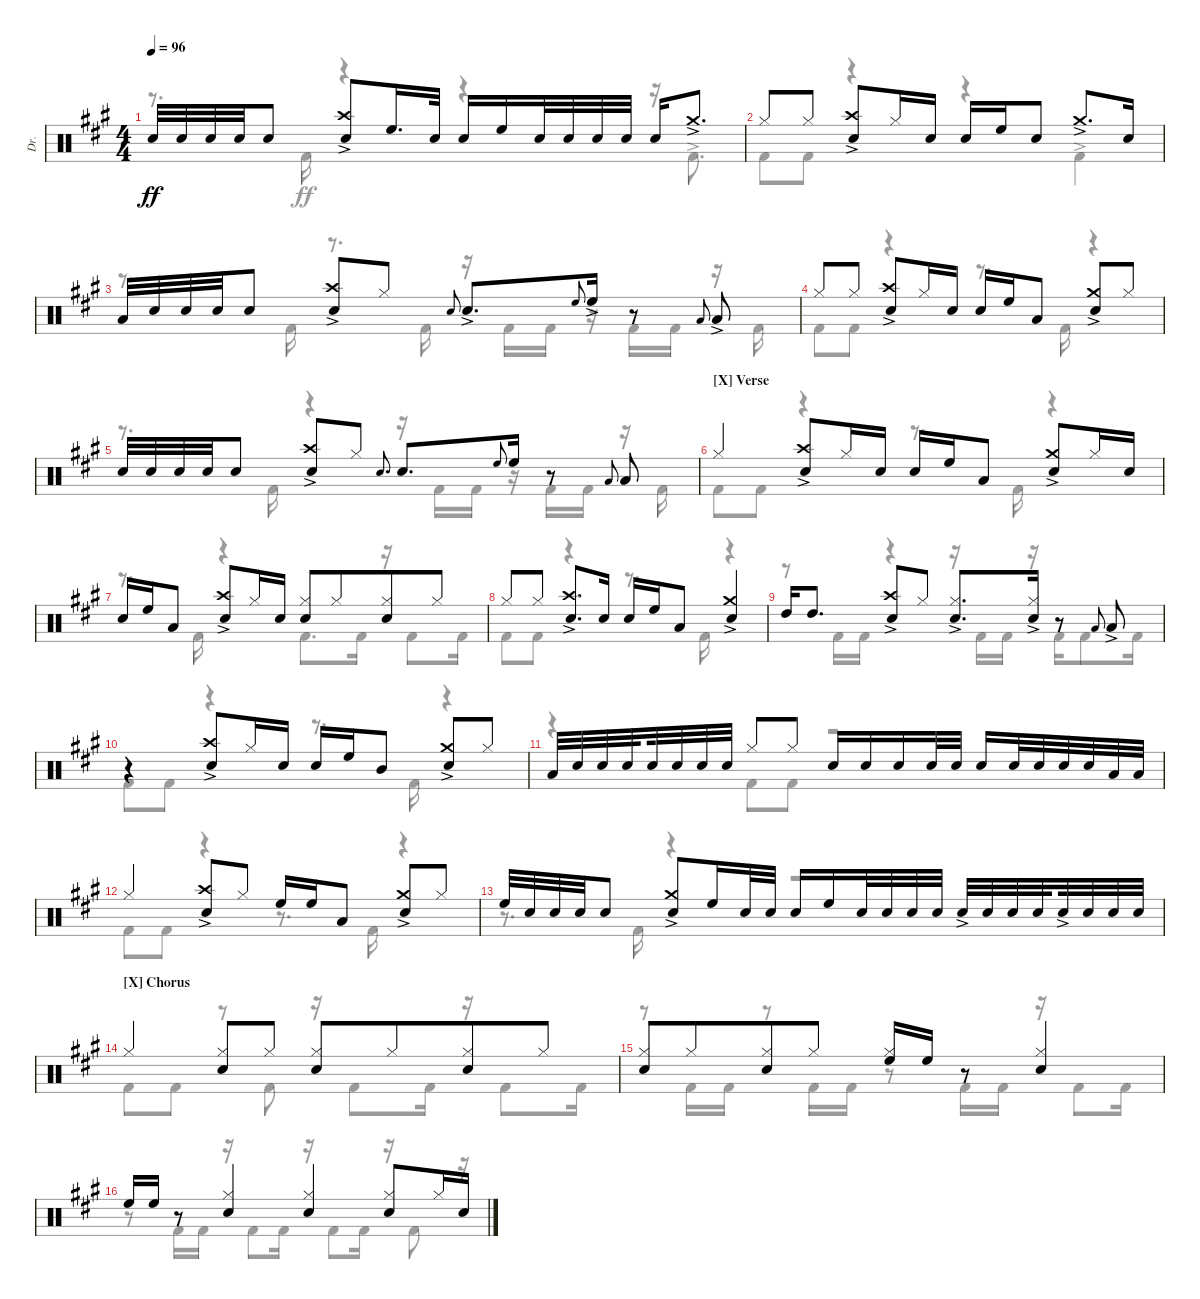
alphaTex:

\defaultSystemsLayout 4
\bracketExtendMode groupsimilarinstruments
\otherSystemsTrackNameOrientation horizontal
\track ("Drums" "Dr.") {instrument percussion}
\staff {score}
\articulation defaults
\voice
\ts (4 4)
\tempo 96
\clef neutral
\ks a "Snare (hit) 2"{acc forcenatural}.32{dy ff} "Snare (hit) 2"{acc forcenatural}.32 "Snare (hit) 2"{acc forcenatural}.32 "Snare (hit) 2"{acc forcenatural}.32 "Snare (hit) 2"{acc forcenatural}.8
("Snare (hit) 2"{ac acc forcenatural} "Crash high (hit)"{ac acc forcenatural}).8 "High Floor Tom (hit)"{acc forcenatural}.16{d} "Snare (hit) 2"{acc forcenatural}.32 "Snare (hit) 2"{acc forcenatural}.16 "High Floor Tom (hit)"{acc forcenatural}.16 "Snare (hit) 2"{acc forcenatural}.32 "Snare (hit) 2"{acc forcenatural}.32 "Snare (hit) 2"{acc forcenatural}.32 "Snare (hit) 2"{acc forcenatural}.32 "Snare (hit) 2"{acc forcenatural}.16 "Crash medium (hit)"{ac acc forcenatural}.8{d} |
"Hi-Hat (closed)"{acc forcenatural}.8 "Hi-Hat (closed)"{acc forcenatural}.8 ("Crash high (hit)"{ac acc forcenatural} "Snare (hit) 2"{ac acc forcenatural}).8 "Hi-Hat (closed)"{acc forcenatural}.16 "Snare (hit) 2"{acc forcenatural}.16 "Snare (hit) 2"{acc forcenatural}.16 "High Floor Tom (hit)"{acc forcenatural}.16 "Snare (hit) 2"{acc forcenatural}.8 "Crash medium (hit)"{ac acc forcenatural}.8{d} "Snare (hit) 2"{acc forcenatural}.16 |
"Low Tom (hit)"{acc forcenatural}.32 "Snare (hit) 2"{acc forcenatural}.32 "Snare (hit) 2"{acc forcenatural}.32 "Snare (hit) 2"{acc forcenatural}.32 "Snare (hit) 2"{acc forcenatural}.8 ("Snare (hit) 2"{ac acc forcenatural} "Crash high (hit)"{ac acc forcenatural}).8 "Hi-Hat (closed)"{acc forcenatural}.8 "Snare (hit) 2"{acc forcenatural}.8{gr onbeat} "Snare (hit) 2"{ac acc forcenatural}.8{d} "High Floor Tom (hit)"{acc forcenatural}.8{gr onbeat} "High Floor Tom (hit)"{ac acc forcenatural}.16 r.8 "Low Tom (hit)"{acc forcenatural}.8{gr onbeat} "Low Tom (hit)"{ac acc forcenatural}.8 |
"Hi-Hat (closed)"{acc forcenatural}.8 "Hi-Hat (closed)"{acc forcenatural}.8 ("Crash high (hit)"{ac acc forcenatural} "Snare (hit) 2"{ac acc forcenatural}).8 "Hi-Hat (closed)"{acc forcenatural}.16 "Snare (hit) 2"{acc forcenatural}.16 "Snare (hit) 2"{acc forcenatural}.16 "High Floor Tom (hit)"{acc forcenatural}.16 "Low Tom (hit)"{acc forcenatural}.8 ("Snare (hit) 2"{ac acc forcenatural} "Crash medium (hit)"{ac acc forcenatural}).8 "Hi-Hat (closed)"{acc forcenatural}.8 |
"Snare (hit) 2"{acc forcenatural}.32 "Snare (hit) 2"{acc forcenatural}.32 "Snare (hit) 2"{acc forcenatural}.32 "Snare (hit) 2"{acc forcenatural}.32 "Snare (hit) 2"{acc forcenatural}.8 ("Snare (hit) 2"{ac acc forcenatural} "Crash high (hit)"{ac acc forcenatural}).8 "Hi-Hat (closed)"{acc forcenatural}.8 "Snare (hit) 2"{acc forcenatural}.8{d gr onbeat} "Snare (hit) 2"{acc forcenatural}.8{d} "High Floor Tom (hit)"{acc forcenatural}.8{gr onbeat} "High Floor Tom (hit)"{acc forcenatural}.16 r.8 "Low Tom (hit)"{acc forcenatural}.8{gr onbeat} "Low Tom (hit)"{acc forcenatural}.8 |
\section ("X" "Verse")
"Hi-Hat (closed)"{acc forcenatural}.4 ("Crash high (hit)"{ac acc forcenatural} "Snare (hit) 2"{ac acc forcenatural}).8 "Hi-Hat (closed)"{acc forcenatural}.16 "Snare (hit) 2"{acc forcenatural}.16 "Snare (hit) 2"{acc forcenatural}.16 "High Floor Tom (hit)"{acc forcenatural}.16 "Low Tom (hit)"{acc forcenatural}.8 ("Snare (hit) 2"{ac acc forcenatural} "Crash medium (hit)"{ac acc forcenatural}).8 "Hi-Hat (closed)"{acc forcenatural}.16 "Snare (hit) 2"{acc forcenatural}.16 |
"Snare (hit) 2"{acc forcenatural}.16 "High Floor Tom (hit)"{acc forcenatural}.16 "Low Tom (hit)"{acc forcenatural}.8 ("Snare (hit) 2"{ac acc forcenatural} "Crash high (hit)"{ac acc forcenatural}).8 "Hi-Hat (closed)"{acc forcenatural}.16 "Snare (hit) 2"{acc forcenatural}.16 ("Snare (hit) 2"{acc forcenatural} "Hi-Hat (closed)"{acc forcenatural}).8 "Hi-Hat (closed)"{acc forcenatural}.8{beam merge} ("Hi-Hat (closed)"{acc forcenatural} "Snare (hit) 2"{acc forcenatural}).8{beam merge} "Hi-Hat (closed)"{acc forcenatural}.8{beam merge} |
"Hi-Hat (closed)"{acc forcenatural}.8 "Hi-Hat (closed)"{acc forcenatural}.8 ("Crash high (hit)"{ac acc forcenatural} "Snare (hit) 2"{ac acc forcenatural}).8{d} "Snare (hit) 2"{acc forcenatural}.16 "Snare (hit) 2"{acc forcenatural}.16 "High Floor Tom (hit)"{acc forcenatural}.16 "Low Tom (hit)"{acc forcenatural}.8 ("Snare (hit) 2"{ac acc forcenatural} "Crash medium (hit)"{ac acc forcenatural}).4 |
"High Tom (hit)"{acc forcenatural}.16 "High Tom (hit)"{acc forcenatural}.8{d} ("Snare (hit) 2"{ac acc forcenatural} "Crash high (hit)"{ac acc forcenatural}).8 "Hi-Hat (closed)"{acc forcenatural}.8 ("Hi-Hat (closed)"{ac acc forcenatural} "Snare (hit) 2"{ac acc forcenatural}).8{d} ("Hi-Hat (closed)"{ac acc forcenatural} "Snare (hit) 2"{ac acc forcenatural}).16 r.8 "Low Tom (hit)"{acc forcenatural}.8{gr onbeat} "Low Tom (hit)"{ac acc forcenatural}.8 |
r.4 ("Snare (hit) 2"{ac acc forcenatural} "Crash high (hit)"{ac acc forcenatural}).8 "Hi-Hat (closed)"{acc forcenatural}.16 "Snare (hit) 2"{acc forcenatural}.16 "Snare (hit) 2"{acc forcenatural}.16 "High Floor Tom (hit)"{acc forcenatural}.16 "Mid Tom (hit)"{acc forcenatural}.8 ("Snare (hit) 2"{ac acc forcenatural} "Crash medium (hit)"{ac acc forcenatural}).8 "Hi-Hat (closed)"{acc forcenatural}.8 |
"Low Tom (hit)"{acc forcenatural}.32 "Snare (hit) 2"{acc forcenatural}.32 "Snare (hit) 2"{acc forcenatural}.32 "Snare (hit) 2"{acc forcenatural}.32{beam splitsecondary} "Snare (hit) 2"{acc forcenatural}.32 "Snare (hit) 2"{acc forcenatural}.32 "Snare (hit) 2"{acc forcenatural}.32 "Snare (hit) 2"{acc forcenatural}.32 "Hi-Hat (closed)"{acc forcenatural}.8 "Hi-Hat (closed)"{acc forcenatural}.8 "Snare (hit) 2"{acc forcenatural}.16 "Snare (hit) 2"{acc forcenatural}.16 "Snare (hit) 2"{acc forcenatural}.16 "Snare (hit) 2"{acc forcenatural}.32 "Snare (hit) 2"{acc forcenatural}.32 "Snare (hit) 2"{acc forcenatural}.16 "Snare (hit) 2"{acc forcenatural}.32 "Snare (hit) 2"{acc forcenatural}.32 "Snare (hit) 2"{acc forcenatural}.32{beam merge} "Snare (hit) 2"{acc forcenatural}.32{beam merge} "Low Tom (hit)"{acc forcenatural}.32{beam merge} "Low Tom (hit)"{acc forcenatural}.32 |
"Hi-Hat (closed)"{acc forcenatural}.4 ("Crash high (hit)"{ac acc forcenatural} "Snare (hit) 2"{ac acc forcenatural}).8 "Hi-Hat (closed)"{acc forcenatural}.8 "High Floor Tom (hit)"{acc forcenatural}.16 "High Floor Tom (hit)"{acc forcenatural}.16 "Low Tom (hit)"{acc forcenatural}.8 ("Snare (hit) 2"{ac acc forcenatural} "Crash medium (hit)"{ac acc forcenatural}).8 "Hi-Hat (closed)"{acc forcenatural}.8 |
"High Floor Tom (hit)"{acc forcenatural}.32 "Snare (hit) 2"{acc forcenatural}.32 "Snare (hit) 2"{acc forcenatural}.32 "Snare (hit) 2"{acc forcenatural}.32 "Snare (hit) 2"{acc forcenatural}.8 ("Snare (hit) 2"{ac acc forcenatural} "Crash medium (hit)"{ac acc forcenatural}).8 "High Floor Tom (hit)"{acc forcenatural}.16 "Snare (hit) 2"{acc forcenatural}.32 "Snare (hit) 2"{acc forcenatural}.32 "Snare (hit) 2"{acc forcenatural}.16 "High Floor Tom (hit)"{acc forcenatural}.16 "Snare (hit) 2"{acc forcenatural}.32 "Snare (hit) 2"{acc forcenatural}.32 "Snare (hit) 2"{acc forcenatural}.32 "Snare (hit) 2"{acc forcenatural}.32 "Snare (hit) 2"{ac acc forcenatural}.32 "Snare (hit) 2"{acc forcenatural}.32 "Snare (hit) 2"{acc forcenatural}.32 "Snare (hit) 2"{acc forcenatural}.32{beam splitsecondary} "Snare (hit) 2"{ac acc forcenatural}.32 "Snare (hit) 2"{acc forcenatural}.32 "Snare (hit) 2"{acc forcenatural}.32 "Snare (hit) 2"{acc forcenatural}.32 |
\section ("X" "Chorus")
"Hi-Hat (closed)"{acc forcenatural}.4 ("Hi-Hat (closed)"{acc forcenatural} "Snare (hit) 2"{acc forcenatural}).8 "Hi-Hat (closed)"{acc forcenatural}.8 ("Hi-Hat (closed)"{acc forcenatural} "Snare (hit) 2"{acc forcenatural}).8 "Hi-Hat (closed)"{acc forcenatural}.8{beam merge} ("Hi-Hat (closed)"{acc forcenatural} "Snare (hit) 2"{acc forcenatural}).8{beam merge} "Hi-Hat (closed)"{acc forcenatural}.8{beam merge} |
("Snare (hit) 2"{acc forcenatural} "Hi-Hat (closed)"{acc forcenatural}).8 "Hi-Hat (closed)"{acc forcenatural}.8{beam merge} ("Snare (hit) 2"{acc forcenatural} "Hi-Hat (closed)"{acc forcenatural}).8{beam merge} "Hi-Hat (closed)"{acc forcenatural}.8{beam split} ("Hi-Hat (closed)"{acc forcenatural} "High Floor Tom (hit)"{acc forcenatural}).16{beam merge} "High Floor Tom (hit)"{acc forcenatural}.16{beam split} r.8{beam split} ("Snare (hit) 2"{acc forcenatural} "Hi-Hat (closed)"{acc forcenatural}).4{beam split} |
"High Floor Tom (hit)"{acc forcenatural}.16 "High Floor Tom (hit)"{acc forcenatural}.16 r.8 ("Hi-Hat (closed)"{acc forcenatural} "Snare (hit) 2"{acc forcenatural}).4 ("Hi-Hat (closed)"{acc forcenatural} "Snare (hit) 2"{acc forcenatural}).4 ("Hi-Hat (closed)"{acc forcenatural} "Snare (hit) 2"{acc forcenatural}).8 "Hi-Hat (closed)"{acc forcenatural}.16 "Snare (hit) 2"{acc forcenatural}.16
\voice
\clef neutral
\ottava regular
\simile none
\ks a
r.8{d dy ff} "Kick (hit) 2"{acc forcenatural}.16 r.4 r.4 r.16 "Kick (hit) 2"{ac acc forcenatural}.8{d} |
"Kick (hit) 2"{acc forcenatural}.8 "Kick (hit) 2"{acc forcenatural}.8 r.4 r.4 "Kick (hit) 2"{ac acc forcenatural}.4 |
r.8{d} "Kick (hit) 2"{acc forcenatural}.16 r.8{d} "Kick (hit) 2"{acc forcenatural}.16 r.16 "Kick (hit) 2"{acc forcenatural}.16 "Kick (hit) 2"{acc forcenatural}.16 r.16 "Kick (hit) 2"{acc forcenatural}.16 "Kick (hit) 2"{acc forcenatural}.16{beam split} r.16{beam split} "Kick (hit) 2"{acc forcenatural}.16{beam split} |
"Kick (hit) 2"{acc forcenatural}.8 "Kick (hit) 2"{acc forcenatural}.8 r.4 r.8{d} "Kick (hit) 2"{acc forcenatural}.16 r.4 |
r.8{d} "Kick (hit) 2"{acc forcenatural}.16 r.4 r.16 "Kick (hit) 2"{acc forcenatural}.16 "Kick (hit) 2"{acc forcenatural}.16 r.16 "Kick (hit) 2"{acc forcenatural}.16 "Kick (hit) 2"{acc forcenatural}.16{beam split} r.16{beam split} "Kick (hit) 2"{acc forcenatural}.16{beam split} |
"Kick (hit) 2"{acc forcenatural}.8 "Kick (hit) 2"{acc forcenatural}.8 r.4 r.8{d} "Kick (hit) 2"{acc forcenatural}.16 r.4 |
r.8{d} "Kick (hit) 2"{acc forcenatural}.16 r.4 "Kick (hit) 2"{acc forcenatural}.8{d} "Kick (hit) 2"{acc forcenatural}.16 r.16 "Kick (hit) 2"{acc forcenatural}.8 "Kick (hit) 2"{acc forcenatural}.16 |
"Kick (hit) 2"{acc forcenatural}.8 "Kick (hit) 2"{acc forcenatural}.8 r.4 r.8{d} "Kick (hit) 2"{acc forcenatural}.16 r.4 |
r.8 "Kick (hit) 2"{acc forcenatural}.16 "Kick (hit) 2"{acc forcenatural}.16 r.4 r.16 "Kick (hit) 2"{acc forcenatural}.16 "Kick (hit) 2"{acc forcenatural}.16 r.16 "Kick (hit) 2"{acc forcenatural}.16 "Kick (hit) 2"{acc forcenatural}.8 "Kick (hit) 2"{acc forcenatural}.16 |
"Kick (hit) 2"{acc forcenatural}.8 "Kick (hit) 2"{acc forcenatural}.8 r.4 r.8{d} "Kick (hit) 2"{acc forcenatural}.16 r.4 |
r.4 "Kick (hit) 2"{acc forcenatural}.8 "Kick (hit) 2"{acc forcenatural}.8 r.2 |
"Kick (hit) 2"{acc forcenatural}.8 "Kick (hit) 2"{acc forcenatural}.8 r.4 r.8{d} "Kick (hit) 2"{acc forcenatural}.16 r.4 |
r.8{d} "Kick (hit) 2"{acc forcenatural}.16 r.4 r.2 |
"Kick (hit) 2"{acc forcenatural}.8 "Kick (hit) 2"{acc forcenatural}.8 r.8 "Kick (hit) 2"{acc forcenatural}.8 r.16 "Kick (hit) 2"{acc forcenatural}.8 "Kick (hit) 2"{acc forcenatural}.16 r.16 "Kick (hit) 2"{acc forcenatural}.8 "Kick (hit) 2"{acc forcenatural}.16 |
r.8 "Kick (hit) 2"{acc forcenatural}.16 "Kick (hit) 2"{acc forcenatural}.16 r.8 "Kick (hit) 2"{acc forcenatural}.16 "Kick (hit) 2"{acc forcenatural}.16 r.8 "Kick (hit) 2"{acc forcenatural}.16 "Kick (hit) 2"{acc forcenatural}.16 r.16 "Kick (hit) 2"{acc forcenatural}.8 "Kick (hit) 2"{acc forcenatural}.16 |
r.8 "Kick (hit) 2"{acc forcenatural}.16 "Kick (hit) 2"{acc forcenatural}.16 r.16 "Kick (hit) 2"{acc forcenatural}.8 "Kick (hit) 2"{acc forcenatural}.16 r.16 "Kick (hit) 2"{acc forcenatural}.8 "Kick (hit) 2"{acc forcenatural}.16 r.16 "Kick (hit) 2"{acc forcenatural}.8 r.16
